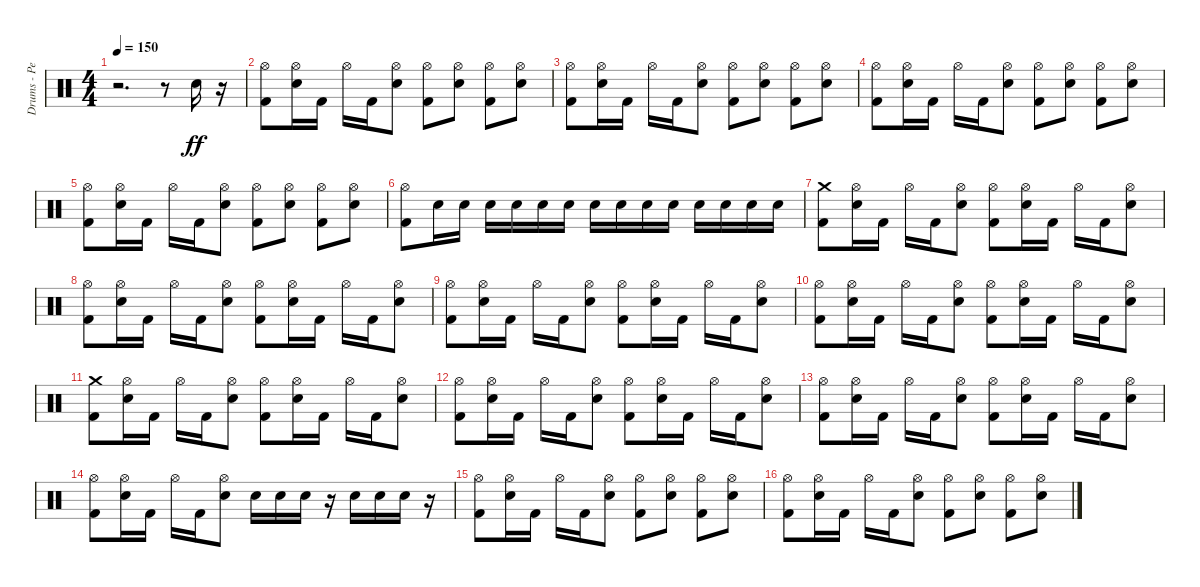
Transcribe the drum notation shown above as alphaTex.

\track ("Drums - Pete Finestone" "Drums - Pe") {instrument percussion}
\staff {score}
\articulation defaults
\ts (4 4)
\tempo 150
\clef neutral
\ks c
r.2{d dy ff} r.8 "Electric Snare (hit)".16 r.16 |
("Kick (hit) 2" "Hi-Hat (open)").8 ("Electric Snare (hit)" "Hi-Hat (open)").16 "Kick (hit) 2".16 "Hi-Hat (open)".16 "Kick (hit) 2".16 ("Electric Snare (hit)" "Hi-Hat (open)").8 ("Kick (hit) 2" "Hi-Hat (open)").8 ("Electric Snare (hit)" "Hi-Hat (open)").8 ("Kick (hit) 2" "Hi-Hat (open)").8 ("Electric Snare (hit)" "Hi-Hat (open)").8 |
("Kick (hit) 2" "Hi-Hat (open)").8 ("Electric Snare (hit)" "Hi-Hat (open)").16 "Kick (hit) 2".16 "Hi-Hat (open)".16 "Kick (hit) 2".16 ("Electric Snare (hit)" "Hi-Hat (open)").8 ("Kick (hit) 2" "Hi-Hat (open)").8 ("Electric Snare (hit)" "Hi-Hat (open)").8 ("Kick (hit) 2" "Hi-Hat (open)").8 ("Electric Snare (hit)" "Hi-Hat (open)").8 |
("Kick (hit) 2" "Hi-Hat (open)").8 ("Electric Snare (hit)" "Hi-Hat (open)").16 "Kick (hit) 2".16 "Hi-Hat (open)".16 "Kick (hit) 2".16 ("Electric Snare (hit)" "Hi-Hat (open)").8 ("Kick (hit) 2" "Hi-Hat (open)").8 ("Electric Snare (hit)" "Hi-Hat (open)").8 ("Kick (hit) 2" "Hi-Hat (open)").8 ("Electric Snare (hit)" "Hi-Hat (open)").8 |
("Kick (hit) 2" "Hi-Hat (open)").8 ("Electric Snare (hit)" "Hi-Hat (open)").16 "Kick (hit) 2".16 "Hi-Hat (open)".16 "Kick (hit) 2".16 ("Electric Snare (hit)" "Hi-Hat (open)").8 ("Kick (hit) 2" "Hi-Hat (open)").8 ("Electric Snare (hit)" "Hi-Hat (open)").8 ("Kick (hit) 2" "Hi-Hat (open)").8 ("Electric Snare (hit)" "Hi-Hat (open)").8 |
("Kick (hit) 2" "Hi-Hat (open)").8 "Electric Snare (hit)".16 "Electric Snare (hit)".16 "Electric Snare (hit)".16 "Electric Snare (hit)".16 "Electric Snare (hit)".16 "Electric Snare (hit)".16 "Electric Snare (hit)".16 "Electric Snare (hit)".16 "Electric Snare (hit)".16 "Electric Snare (hit)".16 "Electric Snare (hit)".16 "Electric Snare (hit)".16 "Electric Snare (hit)".16 "Electric Snare (hit)".16 |
("Crash medium (hit)" "Kick (hit) 2").8 ("Electric Snare (hit)" "Hi-Hat (open)").16 "Kick (hit) 2".16 "Hi-Hat (open)".16 "Kick (hit) 2".16 ("Electric Snare (hit)" "Hi-Hat (open)").8 ("Kick (hit) 2" "Hi-Hat (open)").8 ("Electric Snare (hit)" "Hi-Hat (open)").16 "Kick (hit) 2".16 "Hi-Hat (open)".16 "Kick (hit) 2".16 ("Electric Snare (hit)" "Hi-Hat (open)").8 |
("Kick (hit) 2" "Hi-Hat (open)").8 ("Electric Snare (hit)" "Hi-Hat (open)").16 "Kick (hit) 2".16 "Hi-Hat (open)".16 "Kick (hit) 2".16 ("Electric Snare (hit)" "Hi-Hat (open)").8 ("Kick (hit) 2" "Hi-Hat (open)").8 ("Electric Snare (hit)" "Hi-Hat (open)").16 "Kick (hit) 2".16 "Hi-Hat (open)".16 "Kick (hit) 2".16 ("Electric Snare (hit)" "Hi-Hat (open)").8 |
("Kick (hit) 2" "Hi-Hat (open)").8 ("Electric Snare (hit)" "Hi-Hat (open)").16 "Kick (hit) 2".16 "Hi-Hat (open)".16 "Kick (hit) 2".16 ("Electric Snare (hit)" "Hi-Hat (open)").8 ("Kick (hit) 2" "Hi-Hat (open)").8 ("Electric Snare (hit)" "Hi-Hat (open)").16 "Kick (hit) 2".16 "Hi-Hat (open)".16 "Kick (hit) 2".16 ("Electric Snare (hit)" "Hi-Hat (open)").8 |
("Kick (hit) 2" "Hi-Hat (open)").8 ("Electric Snare (hit)" "Hi-Hat (open)").16 "Kick (hit) 2".16 "Hi-Hat (open)".16 "Kick (hit) 2".16 ("Electric Snare (hit)" "Hi-Hat (open)").8 ("Kick (hit) 2" "Hi-Hat (open)").8 ("Electric Snare (hit)" "Hi-Hat (open)").16 "Kick (hit) 2".16 "Hi-Hat (open)".16 "Kick (hit) 2".16 ("Electric Snare (hit)" "Hi-Hat (open)").8 |
("Kick (hit) 2" "Crash medium (hit)").8 ("Electric Snare (hit)" "Hi-Hat (open)").16 "Kick (hit) 2".16 "Hi-Hat (open)".16 "Kick (hit) 2".16 ("Electric Snare (hit)" "Hi-Hat (open)").8 ("Kick (hit) 2" "Hi-Hat (open)").8 ("Electric Snare (hit)" "Hi-Hat (open)").16 "Kick (hit) 2".16 "Hi-Hat (open)".16 "Kick (hit) 2".16 ("Electric Snare (hit)" "Hi-Hat (open)").8 |
("Kick (hit) 2" "Hi-Hat (open)").8 ("Electric Snare (hit)" "Hi-Hat (open)").16 "Kick (hit) 2".16 "Hi-Hat (open)".16 "Kick (hit) 2".16 ("Electric Snare (hit)" "Hi-Hat (open)").8 ("Kick (hit) 2" "Hi-Hat (open)").8 ("Electric Snare (hit)" "Hi-Hat (open)").16 "Kick (hit) 2".16 "Hi-Hat (open)".16 "Kick (hit) 2".16 ("Electric Snare (hit)" "Hi-Hat (open)").8 |
("Kick (hit) 2" "Hi-Hat (open)").8 ("Electric Snare (hit)" "Hi-Hat (open)").16 "Kick (hit) 2".16 "Hi-Hat (open)".16 "Kick (hit) 2".16 ("Electric Snare (hit)" "Hi-Hat (open)").8 ("Kick (hit) 2" "Hi-Hat (open)").8 ("Electric Snare (hit)" "Hi-Hat (open)").16 "Kick (hit) 2".16 "Hi-Hat (open)".16 "Kick (hit) 2".16 ("Electric Snare (hit)" "Hi-Hat (open)").8 |
("Kick (hit) 2" "Hi-Hat (open)").8 ("Electric Snare (hit)" "Hi-Hat (open)").16 "Kick (hit) 2".16 "Hi-Hat (open)".16 "Kick (hit) 2".16 ("Electric Snare (hit)" "Hi-Hat (open)").8 "Electric Snare (hit)".16 "Electric Snare (hit)".16 "Electric Snare (hit)".16 r.16 "Electric Snare (hit)".16 "Electric Snare (hit)".16 "Electric Snare (hit)".16 r.16 |
("Kick (hit) 2" "Hi-Hat (open)").8 ("Electric Snare (hit)" "Hi-Hat (open)").16 "Kick (hit) 2".16 "Hi-Hat (open)".16 "Kick (hit) 2".16 ("Electric Snare (hit)" "Hi-Hat (open)").8 ("Kick (hit) 2" "Hi-Hat (open)").8 ("Electric Snare (hit)" "Hi-Hat (open)").8 ("Kick (hit) 2" "Hi-Hat (open)").8 ("Electric Snare (hit)" "Hi-Hat (open)").8 |
("Kick (hit) 2" "Hi-Hat (open)").8 ("Electric Snare (hit)" "Hi-Hat (open)").16 "Kick (hit) 2".16 "Hi-Hat (open)".16 "Kick (hit) 2".16 ("Electric Snare (hit)" "Hi-Hat (open)").8 ("Kick (hit) 2" "Hi-Hat (open)").8 ("Electric Snare (hit)" "Hi-Hat (open)").8 ("Kick (hit) 2" "Hi-Hat (open)").8 ("Electric Snare (hit)" "Hi-Hat (open)").8
